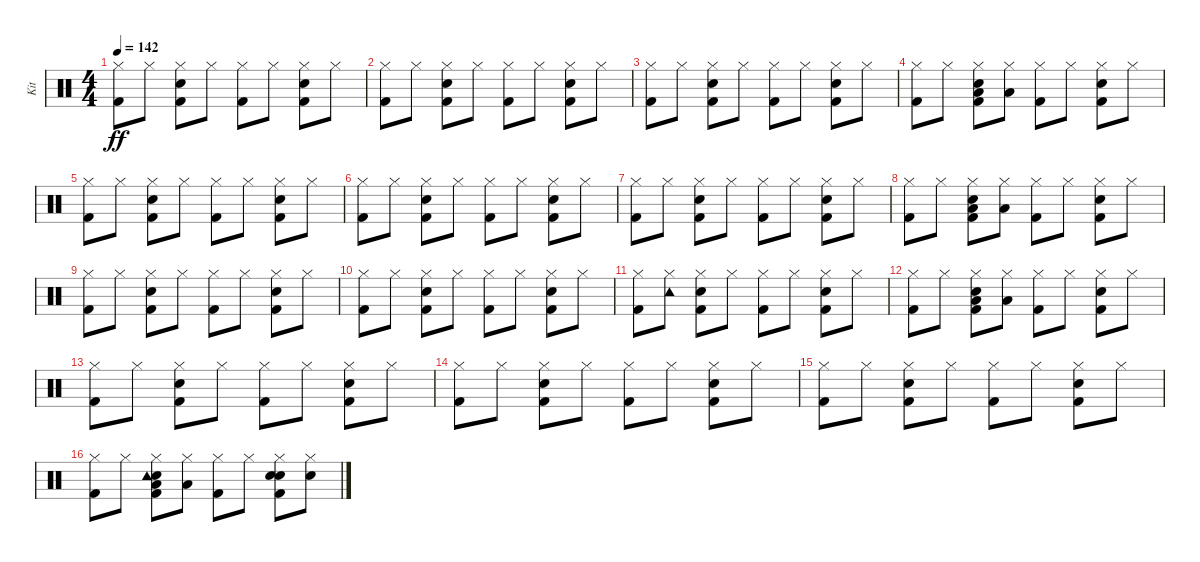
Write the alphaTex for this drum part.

\track ("Kit" "Kit") {instrument percussion}
\staff {score}
\articulation defaults
\ts (4 4)
\tempo 142
\clef neutral
\ks c
("Kick (hit) 2" "Hi-Hat (closed)").8{dy ff} "Hi-Hat (closed)".8 ("Kick (hit) 2" "Electric Snare (hit)" "Hi-Hat (closed)").8 "Hi-Hat (closed)".8 ("Kick (hit) 2" "Hi-Hat (closed)").8 "Hi-Hat (closed)".8 ("Kick (hit) 2" "Electric Snare (hit)" "Hi-Hat (closed)").8 "Hi-Hat (closed)".8 |
("Kick (hit) 2" "Hi-Hat (closed)").8 "Hi-Hat (closed)".8 ("Kick (hit) 2" "Electric Snare (hit)" "Hi-Hat (closed)").8 "Hi-Hat (closed)".8 ("Kick (hit) 2" "Hi-Hat (closed)").8 "Hi-Hat (closed)".8 ("Kick (hit) 2" "Electric Snare (hit)" "Hi-Hat (closed)").8 "Hi-Hat (closed)".8 |
("Kick (hit) 2" "Hi-Hat (closed)").8 "Hi-Hat (closed)".8 ("Kick (hit) 2" "Electric Snare (hit)" "Hi-Hat (closed)").8 "Hi-Hat (closed)".8 ("Kick (hit) 2" "Hi-Hat (closed)").8 "Hi-Hat (closed)".8 ("Kick (hit) 2" "Electric Snare (hit)" "Hi-Hat (closed)").8 "Hi-Hat (closed)".8 |
("Kick (hit) 2" "Hi-Hat (closed)").8 "Hi-Hat (closed)".8 ("Kick (hit) 2" "Electric Snare (hit)" "Low Floor Tom (hit)" "Hi-Hat (closed)").8 ("Low Floor Tom (hit)" "Hi-Hat (closed)").8 ("Kick (hit) 2" "Hi-Hat (closed)").8 "Hi-Hat (closed)".8 ("Kick (hit) 2" "Electric Snare (hit)" "Hi-Hat (closed)").8 "Hi-Hat (closed)".8 |
("Kick (hit) 2" "Hi-Hat (closed)").8 "Hi-Hat (closed)".8 ("Kick (hit) 2" "Electric Snare (hit)" "Hi-Hat (closed)").8 "Hi-Hat (closed)".8 ("Kick (hit) 2" "Hi-Hat (closed)").8 "Hi-Hat (closed)".8 ("Kick (hit) 2" "Electric Snare (hit)" "Hi-Hat (closed)").8 "Hi-Hat (closed)".8 |
("Kick (hit) 2" "Hi-Hat (closed)").8 "Hi-Hat (closed)".8 ("Kick (hit) 2" "Electric Snare (hit)" "Hi-Hat (closed)").8 "Hi-Hat (closed)".8 ("Kick (hit) 2" "Hi-Hat (closed)").8 "Hi-Hat (closed)".8 ("Kick (hit) 2" "Electric Snare (hit)" "Hi-Hat (closed)").8 "Hi-Hat (closed)".8 |
("Kick (hit) 2" "Hi-Hat (closed)").8 "Hi-Hat (closed)".8 ("Kick (hit) 2" "Electric Snare (hit)" "Hi-Hat (closed)").8 "Hi-Hat (closed)".8 ("Kick (hit) 2" "Hi-Hat (closed)").8 "Hi-Hat (closed)".8 ("Kick (hit) 2" "Electric Snare (hit)" "Hi-Hat (closed)").8 "Hi-Hat (closed)".8 |
("Kick (hit) 2" "Hi-Hat (closed)").8 "Hi-Hat (closed)".8 ("Kick (hit) 2" "Electric Snare (hit)" "Low Floor Tom (hit)" "Hi-Hat (closed)").8 ("Low Floor Tom (hit)" "Hi-Hat (closed)").8 ("Kick (hit) 2" "Hi-Hat (closed)").8 "Hi-Hat (closed)".8 ("Kick (hit) 2" "Electric Snare (hit)" "Hi-Hat (closed)").8 "Hi-Hat (closed)".8 |
("Kick (hit) 2" "Hi-Hat (closed)").8 "Hi-Hat (closed)".8 ("Kick (hit) 2" "Electric Snare (hit)" "Hi-Hat (closed)").8 "Hi-Hat (closed)".8 ("Kick (hit) 2" "Hi-Hat (closed)").8 "Hi-Hat (closed)".8 ("Kick (hit) 2" "Electric Snare (hit)" "Hi-Hat (closed)").8 "Hi-Hat (closed)".8 |
("Kick (hit) 2" "Hi-Hat (closed)").8 "Hi-Hat (closed)".8 ("Kick (hit) 2" "Electric Snare (hit)" "Hi-Hat (closed)").8 "Hi-Hat (closed)".8 ("Kick (hit) 2" "Hi-Hat (closed)").8 "Hi-Hat (closed)".8 ("Kick (hit) 2" "Electric Snare (hit)" "Hi-Hat (closed)").8 "Hi-Hat (closed)".8 |
("Kick (hit) 2" "Hi-Hat (closed)").8 ("Hi-Hat (closed)" "Tambourine (hit)").8 ("Kick (hit) 2" "Electric Snare (hit)" "Hi-Hat (closed)").8 "Hi-Hat (closed)".8 ("Kick (hit) 2" "Hi-Hat (closed)").8 "Hi-Hat (closed)".8 ("Kick (hit) 2" "Electric Snare (hit)" "Hi-Hat (closed)").8 "Hi-Hat (closed)".8 |
("Kick (hit) 2" "Hi-Hat (closed)").8 "Hi-Hat (closed)".8 ("Kick (hit) 2" "Electric Snare (hit)" "Low Floor Tom (hit)" "Hi-Hat (closed)").8 ("Low Floor Tom (hit)" "Hi-Hat (closed)").8 ("Kick (hit) 2" "Hi-Hat (closed)").8 "Hi-Hat (closed)".8 ("Kick (hit) 2" "Electric Snare (hit)" "Hi-Hat (closed)").8 "Hi-Hat (closed)".8 |
("Kick (hit) 2" "Hi-Hat (closed)").8 "Hi-Hat (closed)".8 ("Kick (hit) 2" "Electric Snare (hit)" "Hi-Hat (closed)").8 "Hi-Hat (closed)".8 ("Kick (hit) 2" "Hi-Hat (closed)").8 "Hi-Hat (closed)".8 ("Kick (hit) 2" "Electric Snare (hit)" "Hi-Hat (closed)").8 "Hi-Hat (closed)".8 |
("Kick (hit) 2" "Hi-Hat (closed)").8 "Hi-Hat (closed)".8 ("Kick (hit) 2" "Electric Snare (hit)" "Hi-Hat (closed)").8 "Hi-Hat (closed)".8 ("Kick (hit) 2" "Hi-Hat (closed)").8 "Hi-Hat (closed)".8 ("Kick (hit) 2" "Electric Snare (hit)" "Hi-Hat (closed)").8 "Hi-Hat (closed)".8 |
("Kick (hit) 2" "Hi-Hat (closed)").8 "Hi-Hat (closed)".8 ("Kick (hit) 2" "Electric Snare (hit)" "Hi-Hat (closed)").8 "Hi-Hat (closed)".8 ("Kick (hit) 2" "Hi-Hat (closed)").8 "Hi-Hat (closed)".8 ("Kick (hit) 2" "Electric Snare (hit)" "Hi-Hat (closed)").8 "Hi-Hat (closed)".8 |
("Kick (hit) 2" "Hi-Hat (closed)").8 "Hi-Hat (closed)".8 ("Kick (hit) 2" "Electric Snare (hit)" "Low Floor Tom (hit)" "Hi-Hat (closed)" "Tambourine (hit)").8 ("Low Floor Tom (hit)" "Hi-Hat (closed)").8 ("Kick (hit) 2" "Hi-Hat (closed)").8 "Hi-Hat (closed)".8 ("Kick (hit) 2" "Hand Clap (hit)" "Electric Snare (hit)" "Hi-Hat (closed)").8 ("Hand Clap (hit)" "Hi-Hat (closed)").8
